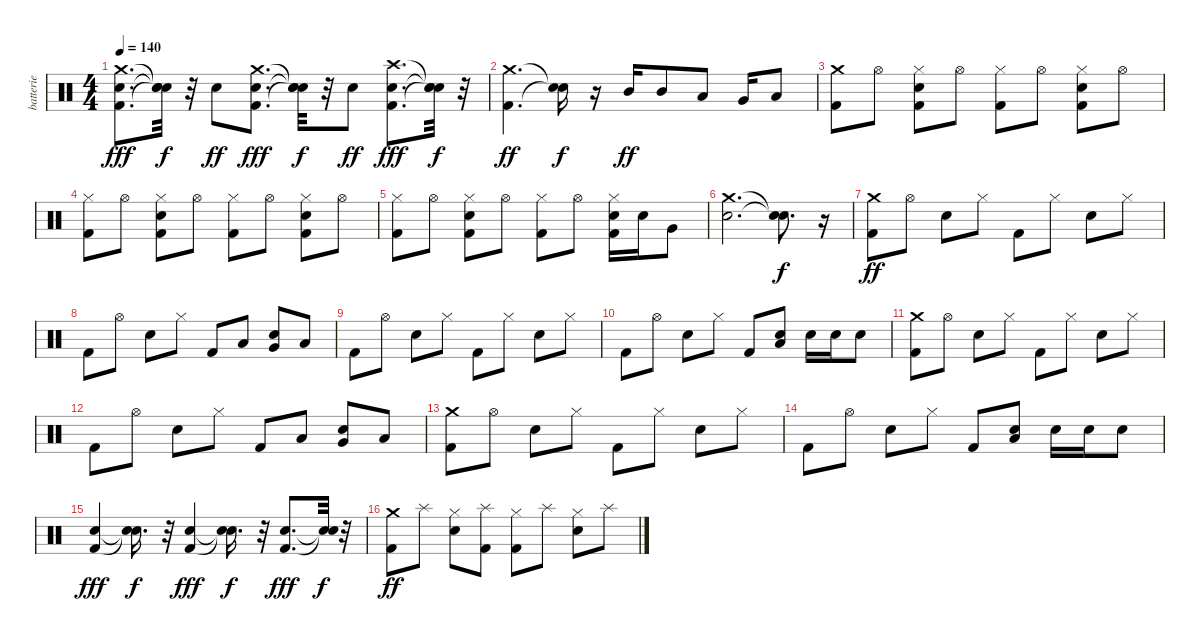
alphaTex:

\track ("batterie" "batterie") {instrument percussion}
\staff {score}
\articulation defaults
\ts (4 4)
\tempo 140
\clef neutral
\ks c
("Kick (hit) 2" "Electric Snare (hit)" "Crash medium (hit)").8{d dy fff} ("Snare (hit)"{t} "Snare (hit)"{t} "Snare (hit)"{t}).32{dy f} r.32 "Electric Snare (hit)".8{dy ff} ("Kick (hit) 2" "Electric Snare (hit)" "Crash medium (hit)").8{d dy fff} ("Snare (hit)"{t} "Snare (hit)"{t} "Snare (hit)"{t}).32{dy f} r.32 "Electric Snare (hit)".8{dy ff} ("Kick (hit) 2" "Electric Snare (hit)" "Crash high (hit)").8{d dy fff} ("Snare (hit)"{t} "Snare (hit)"{t} "Snare (hit)"{t}).32{dy f} r.32 |
("Kick (hit) 2" "Crash medium (hit)").4{d dy ff} ("Snare (hit)"{t} "Snare (hit)"{t}).16{dy f} r.16 "Mid Tom (hit)".16{dy ff} "Mid Tom (hit)".8 "Low Tom (hit)".8 "Very Low Tom (hit)".16 "Low Floor Tom (hit)".8 |
("Kick (hit) 2" "Crash medium (hit)").8 "Hi-Hat (open)".8 ("Kick (hit) 2" "Electric Snare (hit)" "Hi-Hat (closed)").8 "Hi-Hat (open)".8 ("Kick (hit) 2" "Hi-Hat (closed)").8 "Hi-Hat (open)".8 ("Kick (hit) 2" "Electric Snare (hit)" "Hi-Hat (closed)").8 "Hi-Hat (open)".8 |
("Kick (hit) 2" "Hi-Hat (closed)").8 "Hi-Hat (open)".8 ("Kick (hit) 2" "Electric Snare (hit)" "Hi-Hat (closed)").8 "Hi-Hat (open)".8 ("Kick (hit) 2" "Hi-Hat (closed)").8 "Hi-Hat (open)".8 ("Kick (hit) 2" "Electric Snare (hit)" "Hi-Hat (closed)").8 "Hi-Hat (open)".8 |
("Kick (hit) 2" "Hi-Hat (closed)").8 "Hi-Hat (open)".8 ("Kick (hit) 2" "Electric Snare (hit)" "Hi-Hat (closed)").8 "Hi-Hat (open)".8 ("Kick (hit) 2" "Hi-Hat (closed)").8 "Hi-Hat (open)".8 ("Kick (hit) 2" "Electric Snare (hit)" "Hi-Hat (closed)").16 "Electric Snare (hit)".16 "Very Low Tom (hit)".8 |
("Electric Snare (hit)" "Crash medium (hit)").2{d} ("Snare (hit)"{t} "Snare (hit)"{t}).8{d dy f} r.16 |
("Kick (hit) 2" "Crash medium (hit)").8{dy ff} "Hi-Hat (open)".8 "Electric Snare (hit)".8 "Hi-Hat (closed)".8 "Kick (hit) 2".8 "Hi-Hat (closed)".8 "Electric Snare (hit)".8 "Hi-Hat (closed)".8 |
"Kick (hit) 2".8 "Hi-Hat (open)".8 "Electric Snare (hit)".8 "Hi-Hat (closed)".8 "Kick (hit) 2".8 "Low Tom (hit)".8 ("Electric Snare (hit)" "Very Low Tom (hit)").8 "Low Floor Tom (hit)".8 |
"Kick (hit) 2".8 "Hi-Hat (open)".8 "Electric Snare (hit)".8 "Hi-Hat (closed)".8 "Kick (hit) 2".8 "Hi-Hat (closed)".8 "Electric Snare (hit)".8 "Hi-Hat (closed)".8 |
"Kick (hit) 2".8 "Hi-Hat (open)".8 "Electric Snare (hit)".8 "Hi-Hat (closed)".8 "Kick (hit) 2".8 ("Electric Snare (hit)" "Low Tom (hit)").8 "Electric Snare (hit)".16 "Electric Snare (hit)".16 "Electric Snare (hit)".8 |
("Kick (hit) 2" "Crash medium (hit)").8 "Hi-Hat (open)".8 "Electric Snare (hit)".8 "Hi-Hat (closed)".8 "Kick (hit) 2".8 "Hi-Hat (closed)".8 "Electric Snare (hit)".8 "Hi-Hat (closed)".8 |
"Kick (hit) 2".8 "Hi-Hat (open)".8 "Electric Snare (hit)".8 "Hi-Hat (closed)".8 "Kick (hit) 2".8 "Low Tom (hit)".8 ("Electric Snare (hit)" "Very Low Tom (hit)").8 "Low Floor Tom (hit)".8 |
("Kick (hit) 2" "Crash medium (hit)").8 "Hi-Hat (open)".8 "Electric Snare (hit)".8 "Hi-Hat (closed)".8 "Kick (hit) 2".8 "Hi-Hat (closed)".8 "Electric Snare (hit)".8 "Hi-Hat (closed)".8 |
"Kick (hit) 2".8 "Hi-Hat (open)".8 "Electric Snare (hit)".8 "Hi-Hat (closed)".8 "Kick (hit) 2".8 ("Electric Snare (hit)" "Low Tom (hit)").8 "Electric Snare (hit)".16 "Electric Snare (hit)".16 "Electric Snare (hit)".8 |
("Kick (hit) 2" "Electric Snare (hit)").4{dy fff} ("Snare (hit)"{t} "Snare (hit)"{t}).16{d dy f} r.32 ("Kick (hit) 2" "Electric Snare (hit)").4{dy fff} ("Snare (hit)"{t} "Snare (hit)"{t}).16{d dy f} r.32 ("Kick (hit) 2" "Electric Snare (hit)").8{d dy fff} ("Snare (hit)"{t} "Snare (hit)"{t}).32{dy f} r.32 |
("Kick (hit) 2" "Crash medium (hit)").8{dy ff} "Splash (hit)".8 ("Electric Snare (hit)" "Hi-Hat (closed)").8 ("Kick (hit) 2" "Splash (hit)").8 ("Kick (hit) 2" "Hi-Hat (closed)").8 "Splash (hit)".8 ("Electric Snare (hit)" "Hi-Hat (closed)").8 "Splash (hit)".8
